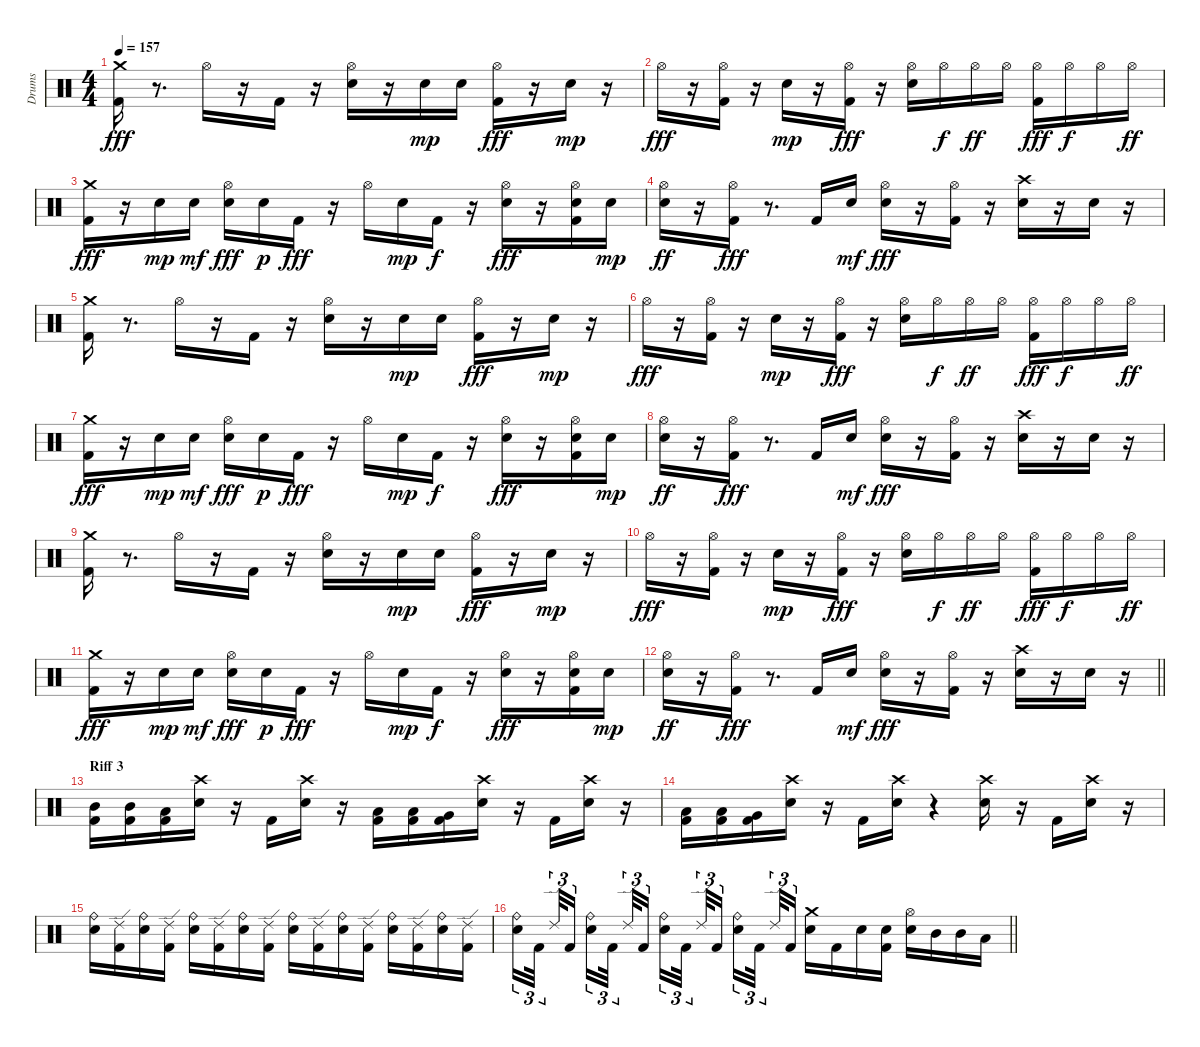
\track ("Drums" "Drums") {instrument percussion}
\staff {score}
\articulation defaults
\ts (4 4)
\tempo 157
\clef neutral
\ks c
("Kick (hit) 2" "Crash medium (hit)").16{dy fff} r.8{d} "Hi-Hat (open)".16 r.16 "Kick (hit) 2".16 r.16 ("Snare (hit) 2" "Hi-Hat (open)").16 r.16 "Snare (hit) 2".16{dy mp} "Snare (hit) 2".16 ("Kick (hit) 2" "Hi-Hat (open)").16{dy fff} r.16 "Snare (hit) 2".16{dy mp} r.16 |
"Hi-Hat (open)".16{dy fff} r.16 ("Kick (hit) 2" "Hi-Hat (open)").16 r.16 "Snare (hit) 2".16{dy mp} r.16 ("Kick (hit) 2" "Hi-Hat (open)").16{dy fff} r.16 ("Snare (hit) 2" "Hi-Hat (open)").16 "Hi-Hat (open)".16{dy f} "Hi-Hat (open)".16{dy ff} "Hi-Hat (open)".16 ("Kick (hit) 2" "Hi-Hat (open)").16{dy fff} "Hi-Hat (open)".16{dy f} "Hi-Hat (open)".16 "Hi-Hat (open)".16{dy ff} |
("Kick (hit) 2" "Crash medium (hit)").16{dy fff} r.16 "Snare (hit) 2".16{dy mp} "Snare (hit) 2".16{dy mf} ("Snare (hit) 2" "Hi-Hat (open)").16{dy fff} "Snare (hit) 2".16{dy p} "Kick (hit) 2".16{dy fff} r.16 "Hi-Hat (open)".16 "Snare (hit) 2".16{dy mp} "Kick (hit) 2".16{dy f} r.16 ("Snare (hit) 2" "Hi-Hat (open)").16{dy fff} r.16 ("Kick (hit) 2" "Snare (hit) 2" "Hi-Hat (open)").16 "Snare (hit) 2".16{dy mp} |
("Snare (hit) 2" "Hi-Hat (open)").16{dy ff} r.16 ("Kick (hit) 2" "Hi-Hat (open)").16{dy fff} r.8{d} "Kick (hit) 2".16 "Snare (hit) 2".16{dy mf} ("Snare (hit) 2" "Hi-Hat (open)").16{dy fff} r.16 ("Kick (hit) 2" "Hi-Hat (open)").16 r.16 ("Snare (hit) 2" "Crash high (hit)").16 r.16 "Snare (hit) 2".16 r.16 |
("Kick (hit) 2" "Crash medium (hit)").16 r.8{d} "Hi-Hat (open)".16 r.16 "Kick (hit) 2".16 r.16 ("Snare (hit) 2" "Hi-Hat (open)").16 r.16 "Snare (hit) 2".16{dy mp} "Snare (hit) 2".16 ("Kick (hit) 2" "Hi-Hat (open)").16{dy fff} r.16 "Snare (hit) 2".16{dy mp} r.16 |
"Hi-Hat (open)".16{dy fff} r.16 ("Kick (hit) 2" "Hi-Hat (open)").16 r.16 "Snare (hit) 2".16{dy mp} r.16 ("Kick (hit) 2" "Hi-Hat (open)").16{dy fff} r.16 ("Snare (hit) 2" "Hi-Hat (open)").16 "Hi-Hat (open)".16{dy f} "Hi-Hat (open)".16{dy ff} "Hi-Hat (open)".16 ("Kick (hit) 2" "Hi-Hat (open)").16{dy fff} "Hi-Hat (open)".16{dy f} "Hi-Hat (open)".16 "Hi-Hat (open)".16{dy ff} |
("Kick (hit) 2" "Crash medium (hit)").16{dy fff} r.16 "Snare (hit) 2".16{dy mp} "Snare (hit) 2".16{dy mf} ("Snare (hit) 2" "Hi-Hat (open)").16{dy fff} "Snare (hit) 2".16{dy p} "Kick (hit) 2".16{dy fff} r.16 "Hi-Hat (open)".16 "Snare (hit) 2".16{dy mp} "Kick (hit) 2".16{dy f} r.16 ("Snare (hit) 2" "Hi-Hat (open)").16{dy fff} r.16 ("Kick (hit) 2" "Snare (hit) 2" "Hi-Hat (open)").16 "Snare (hit) 2".16{dy mp} |
("Snare (hit) 2" "Hi-Hat (open)").16{dy ff} r.16 ("Kick (hit) 2" "Hi-Hat (open)").16{dy fff} r.8{d} "Kick (hit) 2".16 "Snare (hit) 2".16{dy mf} ("Snare (hit) 2" "Hi-Hat (open)").16{dy fff} r.16 ("Kick (hit) 2" "Hi-Hat (open)").16 r.16 ("Snare (hit) 2" "Crash high (hit)").16 r.16 "Snare (hit) 2".16 r.16 |
("Kick (hit) 2" "Crash medium (hit)").16 r.8{d} "Hi-Hat (open)".16 r.16 "Kick (hit) 2".16 r.16 ("Snare (hit) 2" "Hi-Hat (open)").16 r.16 "Snare (hit) 2".16{dy mp} "Snare (hit) 2".16 ("Kick (hit) 2" "Hi-Hat (open)").16{dy fff} r.16 "Snare (hit) 2".16{dy mp} r.16 |
"Hi-Hat (open)".16{dy fff} r.16 ("Kick (hit) 2" "Hi-Hat (open)").16 r.16 "Snare (hit) 2".16{dy mp} r.16 ("Kick (hit) 2" "Hi-Hat (open)").16{dy fff} r.16 ("Snare (hit) 2" "Hi-Hat (open)").16 "Hi-Hat (open)".16{dy f} "Hi-Hat (open)".16{dy ff} "Hi-Hat (open)".16 ("Kick (hit) 2" "Hi-Hat (open)").16{dy fff} "Hi-Hat (open)".16{dy f} "Hi-Hat (open)".16 "Hi-Hat (open)".16{dy ff} |
("Kick (hit) 2" "Crash medium (hit)").16{dy fff} r.16 "Snare (hit) 2".16{dy mp} "Snare (hit) 2".16{dy mf} ("Snare (hit) 2" "Hi-Hat (open)").16{dy fff} "Snare (hit) 2".16{dy p} "Kick (hit) 2".16{dy fff} r.16 "Hi-Hat (open)".16 "Snare (hit) 2".16{dy mp} "Kick (hit) 2".16{dy f} r.16 ("Snare (hit) 2" "Hi-Hat (open)").16{dy fff} r.16 ("Kick (hit) 2" "Snare (hit) 2" "Hi-Hat (open)").16 "Snare (hit) 2".16{dy mp} |
\barLineRight lightlight
("Snare (hit) 2" "Hi-Hat (open)").16{dy ff} r.16 ("Kick (hit) 2" "Hi-Hat (open)").16{dy fff} r.8{d} "Kick (hit) 2".16 "Snare (hit) 2".16{dy mf} ("Snare (hit) 2" "Hi-Hat (open)").16{dy fff} r.16 ("Kick (hit) 2" "Hi-Hat (open)").16 r.16 ("Snare (hit) 2" "Crash high (hit)").16 r.16 "Snare (hit) 2".16 r.16 |
\section ("" "Riff 3")
("Kick (hit) 2" "Mid Tom (hit)").16 ("Kick (hit) 2" "Mid Tom (hit)").16 ("Kick (hit) 2" "Low Tom (hit)").16 ("Snare (hit) 2" "Crash high (hit)").16 r.16 "Kick (hit) 2".16 ("Snare (hit) 2" "Crash high (hit)").16 r.16 ("Kick (hit) 2" "Low Tom (hit)").16 ("Kick (hit) 2" "Low Tom (hit)").16 ("Kick (hit) 2" "Very Low Tom (hit)").16 ("Snare (hit) 2" "Crash high (hit)").16 r.16 "Kick (hit) 2".16 ("Snare (hit) 2" "Crash high (hit)").16 r.16 |
("Kick (hit) 2" "Low Tom (hit)").16 ("Kick (hit) 2" "Low Tom (hit)").16 ("Kick (hit) 2" "Very Low Tom (hit)").16 ("Snare (hit) 2" "Crash high (hit)").16 r.16 "Kick (hit) 2".16 ("Snare (hit) 2" "Crash high (hit)").16 r.4 ("Snare (hit) 2" "Crash high (hit)").16 r.16 "Kick (hit) 2".16 ("Snare (hit) 2" "Crash high (hit)").16 r.16 |
("Snare (hit) 2" "Ride (bell)").16 ("Kick (hit) 2" "Ride (edge) 2").16 ("Snare (hit) 2" "Ride (bell)").16 ("Kick (hit) 2" "Ride (edge) 2").16 ("Snare (hit) 2" "Ride (bell)").16 ("Kick (hit) 2" "Ride (edge) 2").16 ("Snare (hit) 2" "Ride (bell)").16 ("Kick (hit) 2" "Ride (edge) 2").16 ("Snare (hit) 2" "Ride (bell)").16 ("Kick (hit) 2" "Ride (edge) 2").16 ("Snare (hit) 2" "Ride (bell)").16 ("Kick (hit) 2" "Ride (edge) 2").16 ("Snare (hit) 2" "Ride (bell)").16 ("Kick (hit) 2" "Ride (edge) 2").16 ("Snare (hit) 2" "Ride (bell)").16 ("Kick (hit) 2" "Ride (edge) 2").16 |
\barLineRight lightlight
("Snare (hit) 2" "Ride (bell)").16{tu (3 2)} "Kick (hit) 2".32{tu (3 2) beam splitsecondary} "Ride (edge) 2".32{tu (3 2)} "Kick (hit) 2".16{tu (3 2) beam splitsecondary} ("Snare (hit) 2" "Ride (bell)").16{tu (3 2)} "Kick (hit) 2".32{tu (3 2) beam splitsecondary} "Ride (edge) 2".32{tu (3 2)} "Kick (hit) 2".16{tu (3 2)} ("Snare (hit) 2" "Ride (bell)").16{tu (3 2)} "Kick (hit) 2".32{tu (3 2) beam splitsecondary} "Ride (edge) 2".32{tu (3 2)} "Kick (hit) 2".16{tu (3 2) beam splitsecondary} ("Snare (hit) 2" "Ride (bell)").16{tu (3 2)} "Kick (hit) 2".32{tu (3 2) beam splitsecondary} "Ride (edge) 2".32{tu (3 2)} "Kick (hit) 2".16{tu (3 2)} ("Snare (hit) 2" "Crash medium (hit)").16 "Kick (hit) 2".16 "Snare (hit) 2".16 ("Kick (hit) 2" "Snare (hit) 2").16 ("Snare (hit) 2" "Hi-Hat (open)").16 "Mid Tom (hit)".16 "Mid Tom (hit)".16 "Low Tom (hit)".16
